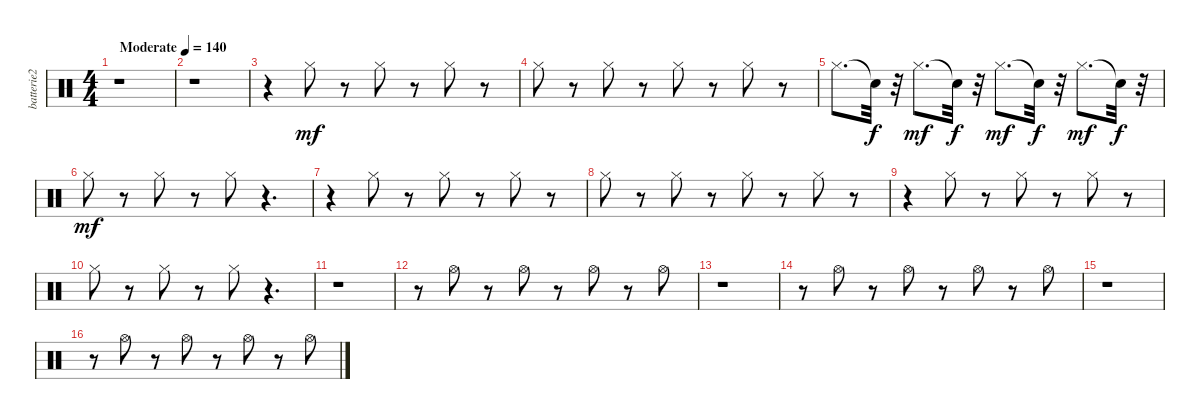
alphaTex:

\track ("batterie2" "batterie2") {instrument percussion}
\staff {score}
\articulation defaults
\ts (4 4)
\tempo (140 "Moderate")
\clef neutral
\ks c
r.1{dy mf} |
r.1 |
r.4 "Hi-Hat (closed)".8 r.8 "Hi-Hat (closed)".8 r.8 "Hi-Hat (closed)".8 r.8 |
"Hi-Hat (closed)".8 r.8 "Hi-Hat (closed)".8 r.8 "Hi-Hat (closed)".8 r.8 "Hi-Hat (closed)".8 r.8 |
"Hi-Hat (closed)".8{d} "Snare (hit)"{t}.32{dy f} r.32 "Hi-Hat (closed)".8{d dy mf} "Snare (hit)"{t}.32{dy f} r.32 "Hi-Hat (closed)".8{d dy mf} "Snare (hit)"{t}.32{dy f} r.32 "Hi-Hat (closed)".8{d dy mf} "Snare (hit)"{t}.32{dy f} r.32 |
"Hi-Hat (closed)".8{dy mf} r.8 "Hi-Hat (closed)".8 r.8 "Hi-Hat (closed)".8 r.4{d} |
r.4 "Hi-Hat (closed)".8 r.8 "Hi-Hat (closed)".8 r.8 "Hi-Hat (closed)".8 r.8 |
"Hi-Hat (closed)".8 r.8 "Hi-Hat (closed)".8 r.8 "Hi-Hat (closed)".8 r.8 "Hi-Hat (closed)".8 r.8 |
r.4 "Hi-Hat (closed)".8 r.8 "Hi-Hat (closed)".8 r.8 "Hi-Hat (closed)".8 r.8 |
"Hi-Hat (closed)".8 r.8 "Hi-Hat (closed)".8 r.8 "Hi-Hat (closed)".8 r.4{d} |
r.1 |
r.8 "Hi-Hat (open)".8 r.8 "Hi-Hat (open)".8 r.8 "Hi-Hat (open)".8 r.8 "Hi-Hat (open)".8 |
r.1 |
r.8 "Hi-Hat (open)".8 r.8 "Hi-Hat (open)".8 r.8 "Hi-Hat (open)".8 r.8 "Hi-Hat (open)".8 |
r.1 |
r.8 "Hi-Hat (open)".8 r.8 "Hi-Hat (open)".8 r.8 "Hi-Hat (open)".8 r.8 "Hi-Hat (open)".8
